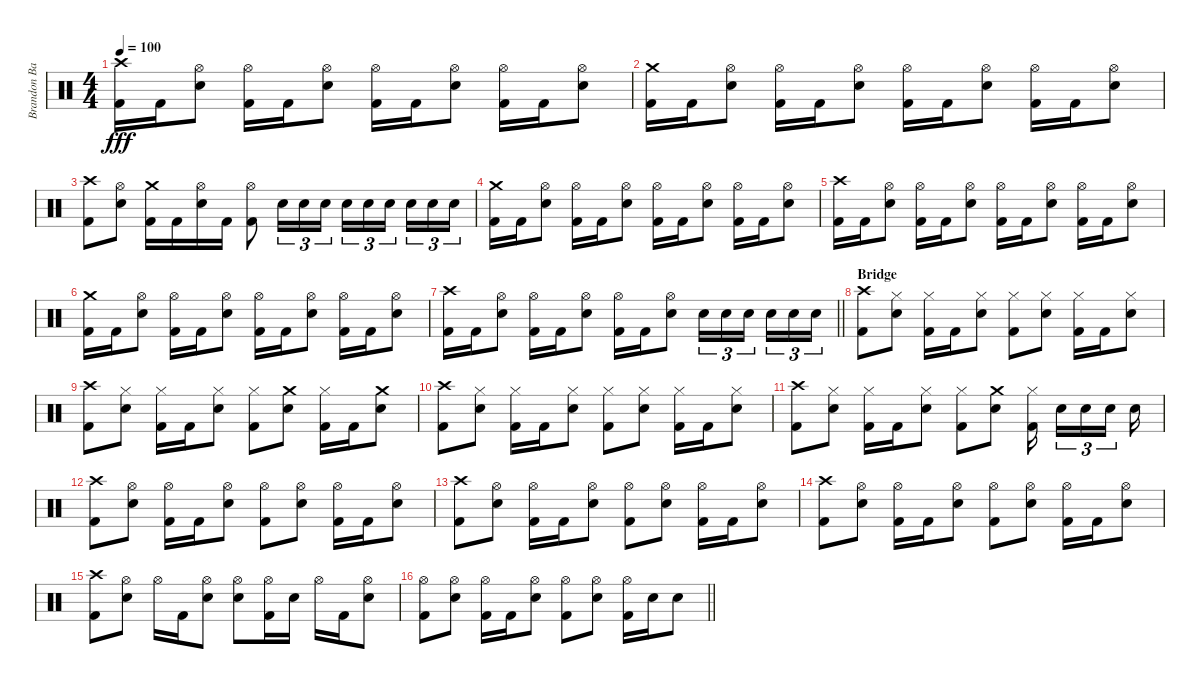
\track ("Brandon Barnes" "Brandon Ba") {instrument percussion}
\staff {score}
\articulation defaults
\ts (4 4)
\tempo 100
\clef neutral
\ks c
("Crash high (hit)" "Kick (hit) 2").16{dy fff} "Kick (hit) 2".16 ("Hi-Hat (open)" "Snare (hit) 2").8 ("Hi-Hat (open)" "Kick (hit) 2").16 "Kick (hit) 2".16 ("Hi-Hat (open)" "Snare (hit) 2").8 ("Hi-Hat (open)" "Kick (hit) 2").16 "Kick (hit) 2".16 ("Hi-Hat (open)" "Snare (hit) 2").8 ("Hi-Hat (open)" "Kick (hit) 2").16 "Kick (hit) 2".16 ("Hi-Hat (open)" "Snare (hit) 2").8 |
("Crash medium (hit)" "Kick (hit) 2").16 "Kick (hit) 2".16 ("Hi-Hat (open)" "Snare (hit) 2").8 ("Hi-Hat (open)" "Kick (hit) 2").16 "Kick (hit) 2".16 ("Hi-Hat (open)" "Snare (hit) 2").8 ("Hi-Hat (open)" "Kick (hit) 2").16 "Kick (hit) 2".16 ("Hi-Hat (open)" "Snare (hit) 2").8 ("Hi-Hat (open)" "Kick (hit) 2").16 "Kick (hit) 2".16 ("Hi-Hat (open)" "Snare (hit) 2").8 |
("Crash high (hit)" "Kick (hit) 2").8 ("Hi-Hat (open)" "Snare (hit) 2").8 ("Crash medium (hit)" "Kick (hit) 2").16 "Kick (hit) 2".16 ("Hi-Hat (open)" "Snare (hit) 2").16 "Kick (hit) 2".16 ("Hi-Hat (open)" "Kick (hit) 2").8 "Snare (hit) 2".16{tu (3 2)} "Snare (hit) 2".16{tu (3 2)} "Snare (hit) 2".16{tu (3 2)} "Snare (hit) 2".16{tu (3 2)} "Snare (hit) 2".16{tu (3 2)} "Snare (hit) 2".16{tu (3 2) beam splitsecondary} "Snare (hit) 2".16{tu (3 2)} "Snare (hit) 2".16{tu (3 2)} "Snare (hit) 2".16{tu (3 2)} |
("Crash medium (hit)" "Kick (hit) 2").16 "Kick (hit) 2".16 ("Hi-Hat (open)" "Snare (hit) 2").8 ("Hi-Hat (open)" "Kick (hit) 2").16 "Kick (hit) 2".16 ("Hi-Hat (open)" "Snare (hit) 2").8 ("Hi-Hat (open)" "Kick (hit) 2").16 "Kick (hit) 2".16 ("Hi-Hat (open)" "Snare (hit) 2").8 ("Hi-Hat (open)" "Kick (hit) 2").16 "Kick (hit) 2".16 ("Hi-Hat (open)" "Snare (hit) 2").8 |
("Crash high (hit)" "Kick (hit) 2").16 "Kick (hit) 2".16 ("Hi-Hat (open)" "Snare (hit) 2").8 ("Hi-Hat (open)" "Kick (hit) 2").16 "Kick (hit) 2".16 ("Hi-Hat (open)" "Snare (hit) 2").8 ("Hi-Hat (open)" "Kick (hit) 2").16 "Kick (hit) 2".16 ("Hi-Hat (open)" "Snare (hit) 2").8 ("Hi-Hat (open)" "Kick (hit) 2").16 "Kick (hit) 2".16 ("Hi-Hat (open)" "Snare (hit) 2").8 |
("Crash medium (hit)" "Kick (hit) 2").16 "Kick (hit) 2".16 ("Hi-Hat (open)" "Snare (hit) 2").8 ("Hi-Hat (open)" "Kick (hit) 2").16 "Kick (hit) 2".16 ("Hi-Hat (open)" "Snare (hit) 2").8 ("Hi-Hat (open)" "Kick (hit) 2").16 "Kick (hit) 2".16 ("Hi-Hat (open)" "Snare (hit) 2").8 ("Hi-Hat (open)" "Kick (hit) 2").16 "Kick (hit) 2".16 ("Hi-Hat (open)" "Snare (hit) 2").8 |
\barLineRight lightlight
("Crash high (hit)" "Kick (hit) 2").16 "Kick (hit) 2".16 ("Hi-Hat (open)" "Snare (hit) 2").8 ("Hi-Hat (open)" "Kick (hit) 2").16 "Kick (hit) 2".16 ("Hi-Hat (open)" "Snare (hit) 2").8 ("Hi-Hat (open)" "Kick (hit) 2").16 "Kick (hit) 2".16 ("Hi-Hat (open)" "Snare (hit) 2").8 "Snare (hit) 2".16{tu (3 2)} "Snare (hit) 2".16{tu (3 2)} "Snare (hit) 2".16{tu (3 2) beam splitsecondary} "Snare (hit) 2".16{tu (3 2)} "Snare (hit) 2".16{tu (3 2)} "Snare (hit) 2".16{tu (3 2)} |
\section ("" "Bridge")
("Crash high (hit)" "Kick (hit) 2").8 ("Hi-Hat (closed)" "Snare (hit) 2").8 ("Hi-Hat (closed)" "Kick (hit) 2").16 "Kick (hit) 2".16 ("Hi-Hat (closed)" "Snare (hit) 2").8 ("Hi-Hat (closed)" "Kick (hit) 2").8 ("Hi-Hat (closed)" "Snare (hit) 2").8 ("Hi-Hat (closed)" "Kick (hit) 2").16 "Kick (hit) 2".16 ("Hi-Hat (closed)" "Snare (hit) 2").8 |
("Crash high (hit)" "Kick (hit) 2").8 ("Hi-Hat (closed)" "Snare (hit) 2").8 ("Hi-Hat (closed)" "Kick (hit) 2").16 "Kick (hit) 2".16 ("Hi-Hat (closed)" "Snare (hit) 2").8 ("Hi-Hat (closed)" "Kick (hit) 2").8 ("Crash medium (hit)" "Snare (hit) 2").8 ("Hi-Hat (closed)" "Kick (hit) 2").16 "Kick (hit) 2".16 ("Crash medium (hit)" "Snare (hit) 2").8 |
("Crash high (hit)" "Kick (hit) 2").8 ("Hi-Hat (closed)" "Snare (hit) 2").8 ("Hi-Hat (closed)" "Kick (hit) 2").16 "Kick (hit) 2".16 ("Hi-Hat (closed)" "Snare (hit) 2").8 ("Hi-Hat (closed)" "Kick (hit) 2").8 ("Hi-Hat (closed)" "Snare (hit) 2").8 ("Hi-Hat (closed)" "Kick (hit) 2").16 "Kick (hit) 2".16 ("Hi-Hat (closed)" "Snare (hit) 2").8 |
("Crash high (hit)" "Kick (hit) 2").8 ("Hi-Hat (closed)" "Snare (hit) 2").8 ("Hi-Hat (closed)" "Kick (hit) 2").16 "Kick (hit) 2".16 ("Hi-Hat (closed)" "Snare (hit) 2").8 ("Hi-Hat (closed)" "Kick (hit) 2").8 ("Crash medium (hit)" "Snare (hit) 2").8 ("Hi-Hat (closed)" "Kick (hit) 2").16{beam splitsecondary} "Snare (hit) 2".16{tu (3 2)} "Snare (hit) 2".16{tu (3 2)} "Snare (hit) 2".16{tu (3 2) beam splitsecondary} "Snare (hit) 2".16 |
("Crash high (hit)" "Kick (hit) 2").8 ("Hi-Hat (open)" "Snare (hit) 2").8 ("Hi-Hat (open)" "Kick (hit) 2").16 "Kick (hit) 2".16 ("Hi-Hat (open)" "Snare (hit) 2").8 ("Hi-Hat (open)" "Kick (hit) 2").8 ("Hi-Hat (open)" "Snare (hit) 2").8 ("Hi-Hat (open)" "Kick (hit) 2").16 "Kick (hit) 2".16 ("Hi-Hat (open)" "Snare (hit) 2").8 |
("Crash high (hit)" "Kick (hit) 2").8 ("Hi-Hat (open)" "Snare (hit) 2").8 ("Hi-Hat (open)" "Kick (hit) 2").16 "Kick (hit) 2".16 ("Hi-Hat (open)" "Snare (hit) 2").8 ("Hi-Hat (open)" "Kick (hit) 2").8 ("Hi-Hat (open)" "Snare (hit) 2").8 ("Hi-Hat (open)" "Kick (hit) 2").16 "Kick (hit) 2".16 ("Hi-Hat (open)" "Snare (hit) 2").8 |
("Crash high (hit)" "Kick (hit) 2").8 ("Hi-Hat (open)" "Snare (hit) 2").8 ("Hi-Hat (open)" "Kick (hit) 2").16 "Kick (hit) 2".16 ("Hi-Hat (open)" "Snare (hit) 2").8 ("Hi-Hat (open)" "Kick (hit) 2").8 ("Hi-Hat (open)" "Snare (hit) 2").8 ("Hi-Hat (open)" "Kick (hit) 2").16 "Kick (hit) 2".16 ("Hi-Hat (open)" "Snare (hit) 2").8 |
("Crash high (hit)" "Kick (hit) 2").8 ("Hi-Hat (open)" "Snare (hit) 2").8 "Hi-Hat (open)".16 "Kick (hit) 2".16 ("Hi-Hat (open)" "Snare (hit) 2").8 ("Hi-Hat (open)" "Snare (hit) 2").8 ("Hi-Hat (open)" "Kick (hit) 2").16 "Snare (hit) 2".16 "Hi-Hat (open)".16 "Kick (hit) 2".16 ("Hi-Hat (open)" "Snare (hit) 2").8 |
\barLineRight lightlight
("Hi-Hat (open)" "Kick (hit) 2").8 ("Hi-Hat (open)" "Snare (hit) 2").8 ("Hi-Hat (open)" "Kick (hit) 2").16 "Kick (hit) 2".16 ("Hi-Hat (open)" "Snare (hit) 2").8 ("Hi-Hat (open)" "Kick (hit) 2").8 ("Hi-Hat (open)" "Snare (hit) 2").8 ("Hi-Hat (open)" "Kick (hit) 2").16 "Snare (hit) 2".16 "Snare (hit) 2".8
